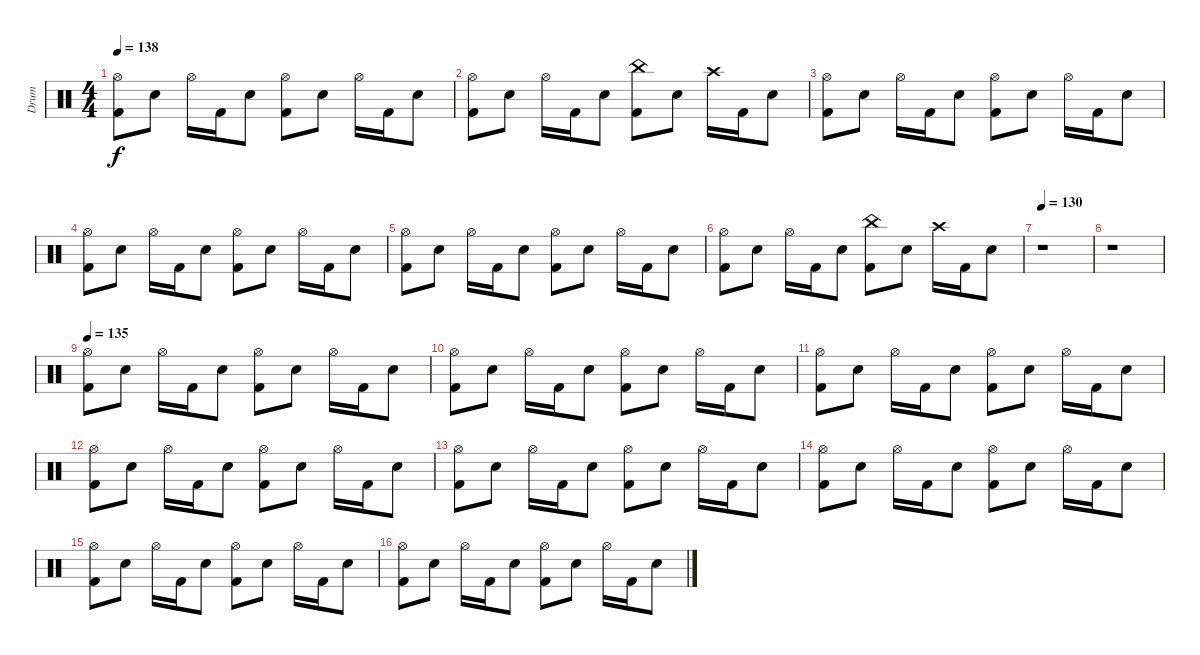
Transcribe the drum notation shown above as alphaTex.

\track ("Drum" "Drum") {instrument percussion}
\staff {score}
\articulation defaults
\ts (4 4)
\tempo 138
\clef neutral
\ks c
("Hi-Hat (open)" "Kick (hit) 2").8{dy f} "Snare (hit) 2".8 "Hi-Hat (open)".16 "Kick (hit) 2".16 "Snare (hit) 2".8 ("Hi-Hat (open)" "Kick (hit) 2").8 "Snare (hit) 2".8 "Hi-Hat (open)".16 "Kick (hit) 2".16 "Snare (hit) 2".8 |
("Hi-Hat (open)" "Kick (hit) 2").8 "Snare (hit) 2".8 "Hi-Hat (open)".16 "Kick (hit) 2".16 "Snare (hit) 2".8 ("China (hit)" "Kick (hit) 2").8 "Snare (hit) 2".8 "Crash high (hit)".16 "Kick (hit) 2".16 "Snare (hit) 2".8 |
("Hi-Hat (open)" "Kick (hit) 2").8 "Snare (hit) 2".8 "Hi-Hat (open)".16 "Kick (hit) 2".16 "Snare (hit) 2".8 ("Hi-Hat (open)" "Kick (hit) 2").8 "Snare (hit) 2".8 "Hi-Hat (open)".16 "Kick (hit) 2".16 "Snare (hit) 2".8 |
("Hi-Hat (open)" "Kick (hit) 2").8 "Snare (hit) 2".8 "Hi-Hat (open)".16 "Kick (hit) 2".16 "Snare (hit) 2".8 ("Hi-Hat (open)" "Kick (hit) 2").8 "Snare (hit) 2".8 "Hi-Hat (open)".16 "Kick (hit) 2".16 "Snare (hit) 2".8 |
("Hi-Hat (open)" "Kick (hit) 2").8 "Snare (hit) 2".8 "Hi-Hat (open)".16 "Kick (hit) 2".16 "Snare (hit) 2".8 ("Hi-Hat (open)" "Kick (hit) 2").8 "Snare (hit) 2".8 "Hi-Hat (open)".16 "Kick (hit) 2".16 "Snare (hit) 2".8 |
("Hi-Hat (open)" "Kick (hit) 2").8 "Snare (hit) 2".8 "Hi-Hat (open)".16 "Kick (hit) 2".16 "Snare (hit) 2".8 ("China (hit)" "Kick (hit) 2").8 "Snare (hit) 2".8 "Crash high (hit)".16 "Kick (hit) 2".16 "Snare (hit) 2".8 |
\tempo 130
r.1 |
r.1 |
\tempo 135
("Hi-Hat (open)" "Kick (hit) 2").8 "Snare (hit) 2".8 "Hi-Hat (open)".16 "Kick (hit) 2".16 "Snare (hit) 2".8 ("Hi-Hat (open)" "Kick (hit) 2").8 "Snare (hit) 2".8 "Hi-Hat (open)".16 "Kick (hit) 2".16 "Snare (hit) 2".8 |
("Hi-Hat (open)" "Kick (hit) 2").8 "Snare (hit) 2".8 "Hi-Hat (open)".16 "Kick (hit) 2".16 "Snare (hit) 2".8 ("Hi-Hat (open)" "Kick (hit) 2").8 "Snare (hit) 2".8 "Hi-Hat (open)".16 "Kick (hit) 2".16 "Snare (hit) 2".8 |
("Hi-Hat (open)" "Kick (hit) 2").8 "Snare (hit) 2".8 "Hi-Hat (open)".16 "Kick (hit) 2".16 "Snare (hit) 2".8 ("Hi-Hat (open)" "Kick (hit) 2").8 "Snare (hit) 2".8 "Hi-Hat (open)".16 "Kick (hit) 2".16 "Snare (hit) 2".8 |
("Hi-Hat (open)" "Kick (hit) 2").8 "Snare (hit) 2".8 "Hi-Hat (open)".16 "Kick (hit) 2".16 "Snare (hit) 2".8 ("Hi-Hat (open)" "Kick (hit) 2").8 "Snare (hit) 2".8 "Hi-Hat (open)".16 "Kick (hit) 2".16 "Snare (hit) 2".8 |
("Hi-Hat (open)" "Kick (hit) 2").8 "Snare (hit) 2".8 "Hi-Hat (open)".16 "Kick (hit) 2".16 "Snare (hit) 2".8 ("Hi-Hat (open)" "Kick (hit) 2").8 "Snare (hit) 2".8 "Hi-Hat (open)".16 "Kick (hit) 2".16 "Snare (hit) 2".8 |
("Hi-Hat (open)" "Kick (hit) 2").8 "Snare (hit) 2".8 "Hi-Hat (open)".16 "Kick (hit) 2".16 "Snare (hit) 2".8 ("Hi-Hat (open)" "Kick (hit) 2").8 "Snare (hit) 2".8 "Hi-Hat (open)".16 "Kick (hit) 2".16 "Snare (hit) 2".8 |
("Hi-Hat (open)" "Kick (hit) 2").8 "Snare (hit) 2".8 "Hi-Hat (open)".16 "Kick (hit) 2".16 "Snare (hit) 2".8 ("Hi-Hat (open)" "Kick (hit) 2").8 "Snare (hit) 2".8 "Hi-Hat (open)".16 "Kick (hit) 2".16 "Snare (hit) 2".8 |
("Hi-Hat (open)" "Kick (hit) 2").8 "Snare (hit) 2".8 "Hi-Hat (open)".16 "Kick (hit) 2".16 "Snare (hit) 2".8 ("Hi-Hat (open)" "Kick (hit) 2").8 "Snare (hit) 2".8 "Hi-Hat (open)".16 "Kick (hit) 2".16 "Snare (hit) 2".8
